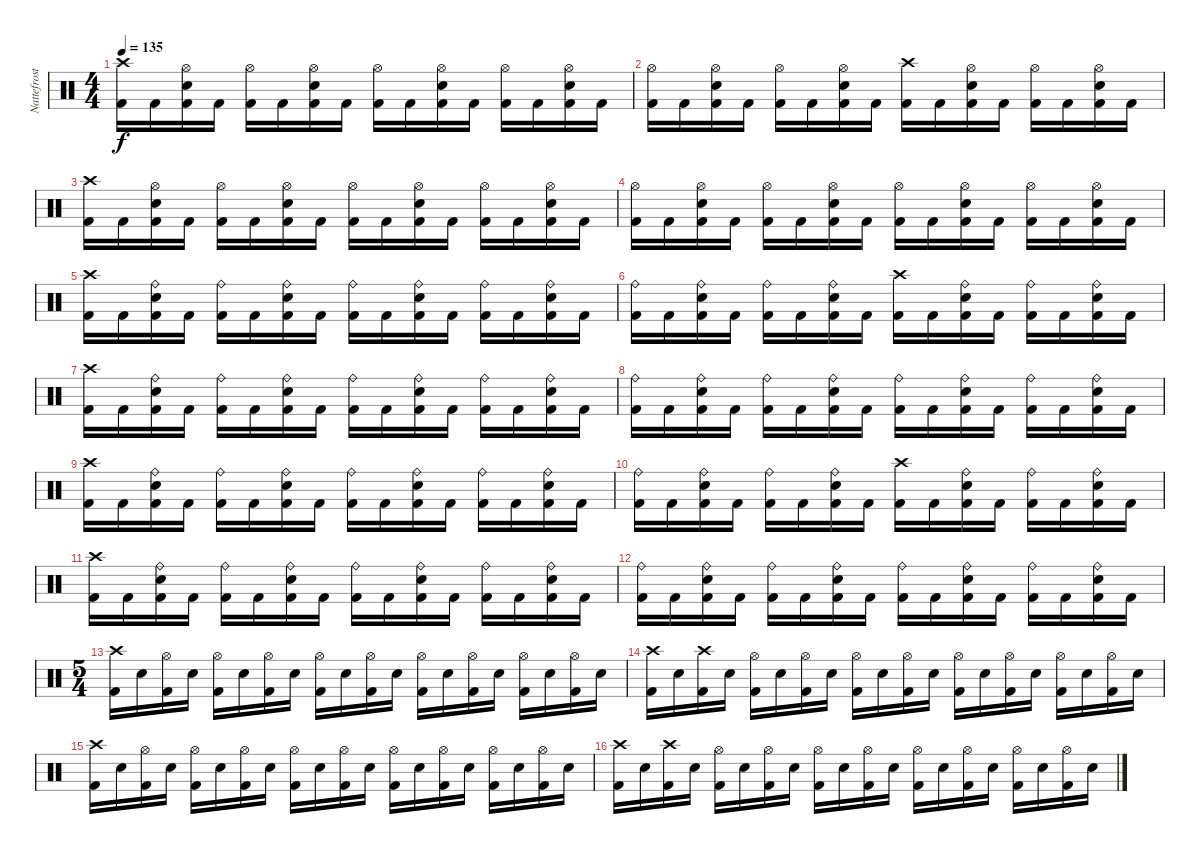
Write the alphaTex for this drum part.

\track ("Nattefrost" "Nattefrost") {instrument percussion}
\staff {score}
\articulation defaults
\ts (4 4)
\tempo 135
\clef neutral
\ks c
("Crash high (hit)" "Kick (hit) 2").16{dy f} "Kick (hit) 2".16 ("Hi-Hat (open)" "Snare (hit) 2" "Kick (hit) 2").16 "Kick (hit) 2".16 ("Hi-Hat (open)" "Kick (hit) 2").16 "Kick (hit) 2".16 ("Hi-Hat (open)" "Snare (hit) 2" "Kick (hit) 2").16 "Kick (hit) 2".16 ("Hi-Hat (open)" "Kick (hit) 2").16 "Kick (hit) 2".16 ("Hi-Hat (open)" "Snare (hit) 2" "Kick (hit) 2").16 "Kick (hit) 2".16 ("Hi-Hat (open)" "Kick (hit) 2").16 "Kick (hit) 2".16 ("Hi-Hat (open)" "Snare (hit) 2" "Kick (hit) 2").16 "Kick (hit) 2".16 |
("Hi-Hat (open)" "Kick (hit) 2").16 "Kick (hit) 2".16 ("Hi-Hat (open)" "Snare (hit) 2" "Kick (hit) 2").16 "Kick (hit) 2".16 ("Hi-Hat (open)" "Kick (hit) 2").16 "Kick (hit) 2".16 ("Hi-Hat (open)" "Snare (hit) 2" "Kick (hit) 2").16 "Kick (hit) 2".16 ("Crash high (hit)" "Kick (hit) 2").16 "Kick (hit) 2".16 ("Hi-Hat (open)" "Snare (hit) 2" "Kick (hit) 2").16 "Kick (hit) 2".16 ("Hi-Hat (open)" "Kick (hit) 2").16 "Kick (hit) 2".16 ("Hi-Hat (open)" "Snare (hit) 2" "Kick (hit) 2").16 "Kick (hit) 2".16 |
("Crash high (hit)" "Kick (hit) 2").16 "Kick (hit) 2".16 ("Hi-Hat (open)" "Snare (hit) 2" "Kick (hit) 2").16 "Kick (hit) 2".16 ("Hi-Hat (open)" "Kick (hit) 2").16 "Kick (hit) 2".16 ("Hi-Hat (open)" "Snare (hit) 2" "Kick (hit) 2").16 "Kick (hit) 2".16 ("Hi-Hat (open)" "Kick (hit) 2").16 "Kick (hit) 2".16 ("Hi-Hat (open)" "Snare (hit) 2" "Kick (hit) 2").16 "Kick (hit) 2".16 ("Hi-Hat (open)" "Kick (hit) 2").16 "Kick (hit) 2".16 ("Hi-Hat (open)" "Snare (hit) 2" "Kick (hit) 2").16 "Kick (hit) 2".16 |
("Hi-Hat (open)" "Kick (hit) 2").16 "Kick (hit) 2".16 ("Hi-Hat (open)" "Snare (hit) 2" "Kick (hit) 2").16 "Kick (hit) 2".16 ("Hi-Hat (open)" "Kick (hit) 2").16 "Kick (hit) 2".16 ("Hi-Hat (open)" "Snare (hit) 2" "Kick (hit) 2").16 "Kick (hit) 2".16 ("Hi-Hat (open)" "Kick (hit) 2").16 "Kick (hit) 2".16 ("Hi-Hat (open)" "Snare (hit) 2" "Kick (hit) 2").16 "Kick (hit) 2".16 ("Hi-Hat (open)" "Kick (hit) 2").16 "Kick (hit) 2".16 ("Hi-Hat (open)" "Snare (hit) 2" "Kick (hit) 2").16 "Kick (hit) 2".16 |
("Crash high (hit)" "Kick (hit) 2").16 "Kick (hit) 2".16 ("Ride (bell)" "Snare (hit) 2" "Kick (hit) 2").16 "Kick (hit) 2".16 ("Ride (bell)" "Kick (hit) 2").16 "Kick (hit) 2".16 ("Ride (bell)" "Snare (hit) 2" "Kick (hit) 2").16 "Kick (hit) 2".16 ("Ride (bell)" "Kick (hit) 2").16 "Kick (hit) 2".16 ("Ride (bell)" "Snare (hit) 2" "Kick (hit) 2").16 "Kick (hit) 2".16 ("Ride (bell)" "Kick (hit) 2").16 "Kick (hit) 2".16 ("Ride (bell)" "Snare (hit) 2" "Kick (hit) 2").16 "Kick (hit) 2".16 |
("Ride (bell)" "Kick (hit) 2").16 "Kick (hit) 2".16 ("Ride (bell)" "Snare (hit) 2" "Kick (hit) 2").16 "Kick (hit) 2".16 ("Ride (bell)" "Kick (hit) 2").16 "Kick (hit) 2".16 ("Ride (bell)" "Snare (hit) 2" "Kick (hit) 2").16 "Kick (hit) 2".16 ("Crash high (hit)" "Kick (hit) 2").16 "Kick (hit) 2".16 ("Ride (bell)" "Snare (hit) 2" "Kick (hit) 2").16 "Kick (hit) 2".16 ("Ride (bell)" "Kick (hit) 2").16 "Kick (hit) 2".16 ("Ride (bell)" "Snare (hit) 2" "Kick (hit) 2").16 "Kick (hit) 2".16 |
("Crash high (hit)" "Kick (hit) 2").16 "Kick (hit) 2".16 ("Ride (bell)" "Snare (hit) 2" "Kick (hit) 2").16 "Kick (hit) 2".16 ("Ride (bell)" "Kick (hit) 2").16 "Kick (hit) 2".16 ("Ride (bell)" "Snare (hit) 2" "Kick (hit) 2").16 "Kick (hit) 2".16 ("Ride (bell)" "Kick (hit) 2").16 "Kick (hit) 2".16 ("Ride (bell)" "Snare (hit) 2" "Kick (hit) 2").16 "Kick (hit) 2".16 ("Ride (bell)" "Kick (hit) 2").16 "Kick (hit) 2".16 ("Ride (bell)" "Snare (hit) 2" "Kick (hit) 2").16 "Kick (hit) 2".16 |
("Ride (bell)" "Kick (hit) 2").16 "Kick (hit) 2".16 ("Ride (bell)" "Snare (hit) 2" "Kick (hit) 2").16 "Kick (hit) 2".16 ("Ride (bell)" "Kick (hit) 2").16 "Kick (hit) 2".16 ("Ride (bell)" "Snare (hit) 2" "Kick (hit) 2").16 "Kick (hit) 2".16 ("Ride (bell)" "Kick (hit) 2").16 "Kick (hit) 2".16 ("Ride (bell)" "Snare (hit) 2" "Kick (hit) 2").16 "Kick (hit) 2".16 ("Ride (bell)" "Kick (hit) 2").16 "Kick (hit) 2".16 ("Ride (bell)" "Snare (hit) 2" "Kick (hit) 2").16 "Kick (hit) 2".16 |
("Crash high (hit)" "Kick (hit) 2").16 "Kick (hit) 2".16 ("Ride (bell)" "Snare (hit) 2" "Kick (hit) 2").16 "Kick (hit) 2".16 ("Ride (bell)" "Kick (hit) 2").16 "Kick (hit) 2".16 ("Ride (bell)" "Snare (hit) 2" "Kick (hit) 2").16 "Kick (hit) 2".16 ("Ride (bell)" "Kick (hit) 2").16 "Kick (hit) 2".16 ("Ride (bell)" "Snare (hit) 2" "Kick (hit) 2").16 "Kick (hit) 2".16 ("Ride (bell)" "Kick (hit) 2").16 "Kick (hit) 2".16 ("Ride (bell)" "Snare (hit) 2" "Kick (hit) 2").16 "Kick (hit) 2".16 |
("Ride (bell)" "Kick (hit) 2").16 "Kick (hit) 2".16 ("Ride (bell)" "Snare (hit) 2" "Kick (hit) 2").16 "Kick (hit) 2".16 ("Ride (bell)" "Kick (hit) 2").16 "Kick (hit) 2".16 ("Ride (bell)" "Snare (hit) 2" "Kick (hit) 2").16 "Kick (hit) 2".16 ("Crash high (hit)" "Kick (hit) 2").16 "Kick (hit) 2".16 ("Ride (bell)" "Snare (hit) 2" "Kick (hit) 2").16 "Kick (hit) 2".16 ("Ride (bell)" "Kick (hit) 2").16 "Kick (hit) 2".16 ("Ride (bell)" "Snare (hit) 2" "Kick (hit) 2").16 "Kick (hit) 2".16 |
("Crash high (hit)" "Kick (hit) 2").16 "Kick (hit) 2".16 ("Ride (bell)" "Snare (hit) 2" "Kick (hit) 2").16 "Kick (hit) 2".16 ("Ride (bell)" "Kick (hit) 2").16 "Kick (hit) 2".16 ("Ride (bell)" "Snare (hit) 2" "Kick (hit) 2").16 "Kick (hit) 2".16 ("Ride (bell)" "Kick (hit) 2").16 "Kick (hit) 2".16 ("Ride (bell)" "Snare (hit) 2" "Kick (hit) 2").16 "Kick (hit) 2".16 ("Ride (bell)" "Kick (hit) 2").16 "Kick (hit) 2".16 ("Ride (bell)" "Snare (hit) 2" "Kick (hit) 2").16 "Kick (hit) 2".16 |
("Ride (bell)" "Kick (hit) 2").16 "Kick (hit) 2".16 ("Ride (bell)" "Snare (hit) 2" "Kick (hit) 2").16 "Kick (hit) 2".16 ("Ride (bell)" "Kick (hit) 2").16 "Kick (hit) 2".16 ("Ride (bell)" "Snare (hit) 2" "Kick (hit) 2").16 "Kick (hit) 2".16 ("Ride (bell)" "Kick (hit) 2").16 "Kick (hit) 2".16 ("Ride (bell)" "Snare (hit) 2" "Kick (hit) 2").16 "Kick (hit) 2".16 ("Ride (bell)" "Kick (hit) 2").16 "Kick (hit) 2".16 ("Ride (bell)" "Snare (hit) 2" "Kick (hit) 2").16 "Kick (hit) 2".16 |
\ts (5 4)
("Crash high (hit)" "Kick (hit) 2").16 "Snare (hit) 2".16 ("Hi-Hat (open)" "Kick (hit) 2").16 "Snare (hit) 2".16 ("Hi-Hat (open)" "Kick (hit) 2").16 "Snare (hit) 2".16 ("Hi-Hat (open)" "Kick (hit) 2").16 "Snare (hit) 2".16 ("Hi-Hat (open)" "Kick (hit) 2").16 "Snare (hit) 2".16 ("Hi-Hat (open)" "Kick (hit) 2").16 "Snare (hit) 2".16 ("Hi-Hat (open)" "Kick (hit) 2").16 "Snare (hit) 2".16 ("Hi-Hat (open)" "Kick (hit) 2").16 "Snare (hit) 2".16 ("Hi-Hat (open)" "Kick (hit) 2").16 "Snare (hit) 2".16 ("Hi-Hat (open)" "Kick (hit) 2").16 "Snare (hit) 2".16 |
("Crash high (hit)" "Kick (hit) 2").16 "Snare (hit) 2".16 ("Crash high (hit)" "Kick (hit) 2").16 "Snare (hit) 2".16 ("Hi-Hat (open)" "Kick (hit) 2").16 "Snare (hit) 2".16 ("Hi-Hat (open)" "Kick (hit) 2").16 "Snare (hit) 2".16 ("Hi-Hat (open)" "Kick (hit) 2").16 "Snare (hit) 2".16 ("Hi-Hat (open)" "Kick (hit) 2").16 "Snare (hit) 2".16 ("Hi-Hat (open)" "Kick (hit) 2").16 "Snare (hit) 2".16 ("Hi-Hat (open)" "Kick (hit) 2").16 "Snare (hit) 2".16 ("Hi-Hat (open)" "Kick (hit) 2").16 "Snare (hit) 2".16 ("Hi-Hat (open)" "Kick (hit) 2").16 "Snare (hit) 2".16 |
("Crash high (hit)" "Kick (hit) 2").16 "Snare (hit) 2".16 ("Hi-Hat (open)" "Kick (hit) 2").16 "Snare (hit) 2".16 ("Hi-Hat (open)" "Kick (hit) 2").16 "Snare (hit) 2".16 ("Hi-Hat (open)" "Kick (hit) 2").16 "Snare (hit) 2".16 ("Hi-Hat (open)" "Kick (hit) 2").16 "Snare (hit) 2".16 ("Hi-Hat (open)" "Kick (hit) 2").16 "Snare (hit) 2".16 ("Hi-Hat (open)" "Kick (hit) 2").16 "Snare (hit) 2".16 ("Hi-Hat (open)" "Kick (hit) 2").16 "Snare (hit) 2".16 ("Hi-Hat (open)" "Kick (hit) 2").16 "Snare (hit) 2".16 ("Hi-Hat (open)" "Kick (hit) 2").16 "Snare (hit) 2".16 |
("Crash high (hit)" "Kick (hit) 2").16 "Snare (hit) 2".16 ("Crash high (hit)" "Kick (hit) 2").16 "Snare (hit) 2".16 ("Hi-Hat (open)" "Kick (hit) 2").16 "Snare (hit) 2".16 ("Hi-Hat (open)" "Kick (hit) 2").16 "Snare (hit) 2".16 ("Hi-Hat (open)" "Kick (hit) 2").16 "Snare (hit) 2".16 ("Hi-Hat (open)" "Kick (hit) 2").16 "Snare (hit) 2".16 ("Hi-Hat (open)" "Kick (hit) 2").16 "Snare (hit) 2".16 ("Hi-Hat (open)" "Kick (hit) 2").16 "Snare (hit) 2".16 ("Hi-Hat (open)" "Kick (hit) 2").16 "Snare (hit) 2".16 ("Hi-Hat (open)" "Kick (hit) 2").16 "Snare (hit) 2".16
